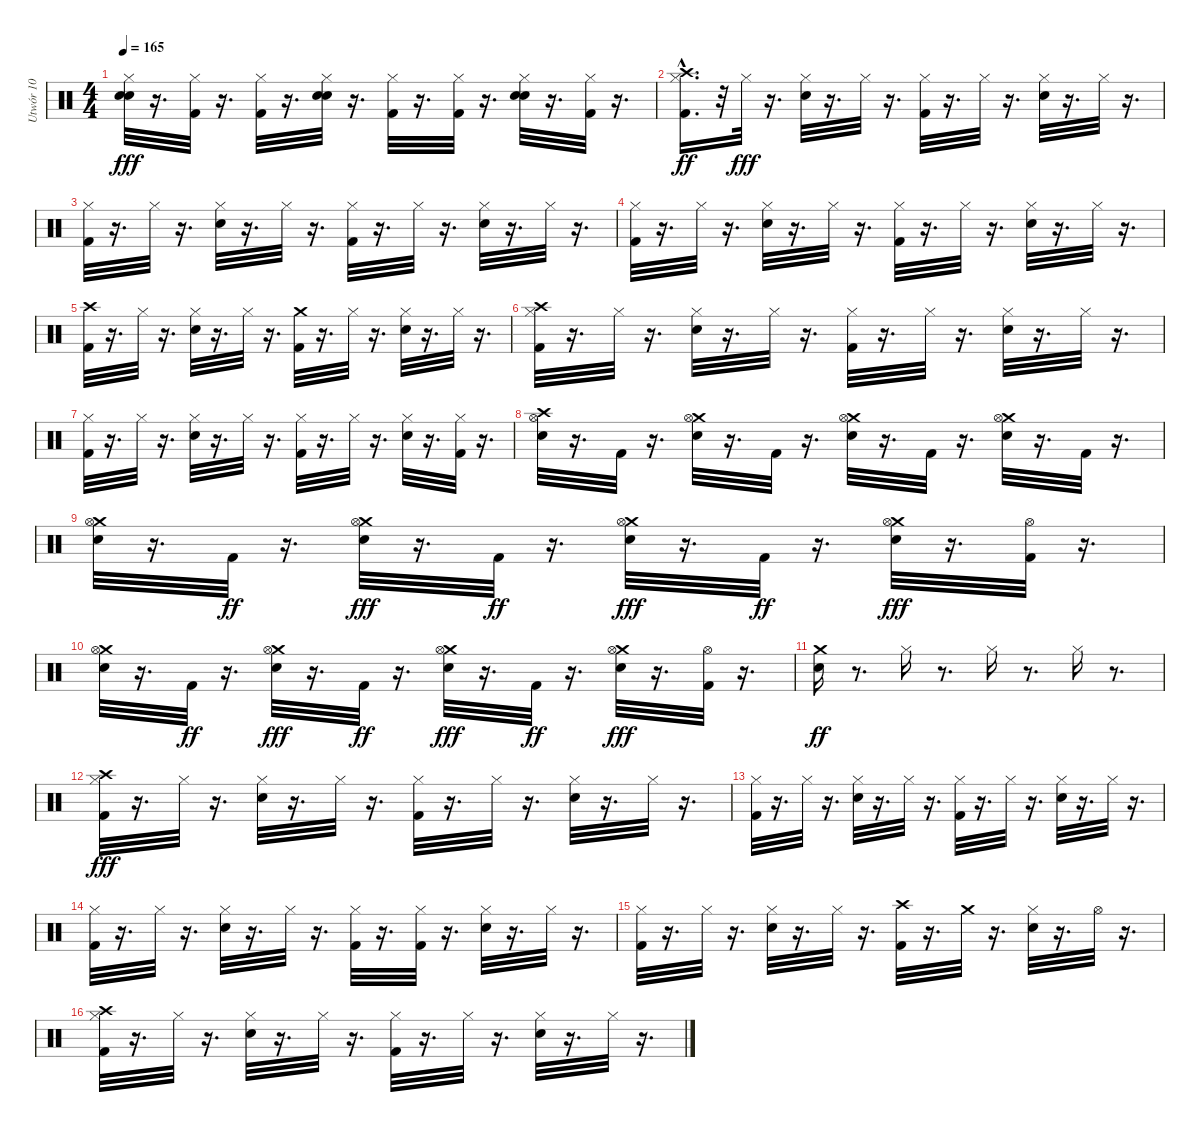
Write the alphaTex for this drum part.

\track ("Utwór 10" "Utwór 10") {instrument percussion}
\staff {score}
\articulation defaults
\ts (4 4)
\tempo 165
\clef neutral
\ks c
("Electric Snare (hit)" "Hi-Hat (closed)" "Electric Snare (hit)").32{dy fff} r.16{d} ("Kick (hit) 2" "Hi-Hat (closed)").32 r.16{d} ("Hi-Hat (closed)" "Kick (hit) 2").32 r.16{d} ("Electric Snare (hit)" "Electric Snare (hit)" "Hi-Hat (closed)").32 r.16{d} ("Hi-Hat (closed)" "Kick (hit) 2").32 r.16{d} ("Hi-Hat (closed)" "Kick (hit) 2").32 r.16{d} ("Electric Snare (hit)" "Hi-Hat (closed)" "Electric Snare (hit)").32 r.16{d} ("Kick (hit) 2" "Hi-Hat (closed)").32 r.16{d} |
("Kick (hit) 2" "Hi-Hat (closed)" "Crash high (hit)"{hac}).16{d dy ff} r.32 "Hi-Hat (closed)".32{dy fff} r.16{d} ("Hi-Hat (closed)" "Electric Snare (hit)").32 r.16{d} "Hi-Hat (closed)".32 r.16{d} ("Hi-Hat (closed)" "Kick (hit) 2").32 r.16{d} "Hi-Hat (closed)".32 r.16{d} ("Hi-Hat (closed)" "Electric Snare (hit)").32 r.16{d} "Hi-Hat (closed)".32 r.16{d} |
("Hi-Hat (closed)" "Kick (hit) 2").32 r.16{d} "Hi-Hat (closed)".32 r.16{d} ("Hi-Hat (closed)" "Electric Snare (hit)").32 r.16{d} "Hi-Hat (closed)".32 r.16{d} ("Hi-Hat (closed)" "Kick (hit) 2").32 r.16{d} "Hi-Hat (closed)".32 r.16{d} ("Hi-Hat (closed)" "Electric Snare (hit)").32 r.16{d} "Hi-Hat (closed)".32 r.16{d} |
("Hi-Hat (closed)" "Kick (hit) 2").32 r.16{d} "Hi-Hat (closed)".32 r.16{d} ("Hi-Hat (closed)" "Electric Snare (hit)").32 r.16{d} "Hi-Hat (closed)".32 r.16{d} ("Hi-Hat (closed)" "Kick (hit) 2").32 r.16{d} "Hi-Hat (closed)".32 r.16{d} ("Hi-Hat (closed)" "Electric Snare (hit)").32 r.16{d} "Hi-Hat (closed)".32 r.16{d} |
("Crash high (hit)" "Kick (hit) 2").32 r.16{d} "Hi-Hat (closed)".32 r.16{d} ("Hi-Hat (closed)" "Electric Snare (hit)").32 r.16{d} "Hi-Hat (closed)".32 r.16{d} ("Crash medium (hit)" "Kick (hit) 2").32 r.16{d} "Hi-Hat (closed)".32 r.16{d} ("Hi-Hat (closed)" "Electric Snare (hit)").32 r.16{d} "Hi-Hat (closed)".32 r.16{d} |
("Crash high (hit)" "Hi-Hat (closed)" "Kick (hit) 2").32 r.16{d} "Hi-Hat (closed)".32 r.16{d} ("Hi-Hat (closed)" "Electric Snare (hit)").32 r.16{d} "Hi-Hat (closed)".32 r.16{d} ("Hi-Hat (closed)" "Kick (hit) 2").32 r.16{d} "Hi-Hat (closed)".32 r.16{d} ("Hi-Hat (closed)" "Electric Snare (hit)").32 r.16{d} "Hi-Hat (closed)".32 r.16{d} |
("Hi-Hat (closed)" "Kick (hit) 2").32 r.16{d} "Hi-Hat (closed)".32 r.16{d} ("Hi-Hat (closed)" "Electric Snare (hit)").32 r.16{d} "Hi-Hat (closed)".32 r.16{d} ("Hi-Hat (closed)" "Kick (hit) 2").32 r.16{d} "Hi-Hat (closed)".32 r.16{d} ("Hi-Hat (closed)" "Electric Snare (hit)").32 r.16{d} ("Kick (hit) 2" "Hi-Hat (closed)").32 r.16{d} |
("Electric Snare (hit)" "Crash high (hit)" "Hi-Hat (open)").32 r.16{d} "Kick (hit) 2".32 r.16{d} ("Crash medium (hit)" "Hi-Hat (open)" "Electric Snare (hit)").32 r.16{d} "Kick (hit) 2".32 r.16{d} ("Crash medium (hit)" "Electric Snare (hit)" "Hi-Hat (open)").32 r.16{d} "Kick (hit) 2".32 r.16{d} ("Crash medium (hit)" "Hi-Hat (open)" "Electric Snare (hit)").32 r.16{d} "Kick (hit) 2".32 r.16{d} |
("Crash medium (hit)" "Electric Snare (hit)" "Hi-Hat (open)").32 r.16{d} "Kick (hit) 2".32{dy ff} r.16{d} ("Crash medium (hit)" "Hi-Hat (open)" "Electric Snare (hit)").32{dy fff} r.16{d} "Kick (hit) 2".32{dy ff} r.16{d} ("Crash medium (hit)" "Electric Snare (hit)" "Hi-Hat (open)").32{dy fff} r.16{d} "Kick (hit) 2".32{dy ff} r.16{d} ("Crash medium (hit)" "Hi-Hat (open)" "Electric Snare (hit)").32{dy fff} r.16{d} ("Kick (hit) 2" "Hi-Hat (open)").32 r.16{d} |
("Crash medium (hit)" "Electric Snare (hit)" "Hi-Hat (open)").32 r.16{d} "Kick (hit) 2".32{dy ff} r.16{d} ("Crash medium (hit)" "Hi-Hat (open)" "Electric Snare (hit)").32{dy fff} r.16{d} "Kick (hit) 2".32{dy ff} r.16{d} ("Crash medium (hit)" "Electric Snare (hit)" "Hi-Hat (open)").32{dy fff} r.16{d} "Kick (hit) 2".32{dy ff} r.16{d} ("Crash medium (hit)" "Hi-Hat (open)" "Electric Snare (hit)").32{dy fff} r.16{d} ("Kick (hit) 2" "Hi-Hat (open)").32 r.16{d} |
("Crash medium (hit)" "Snare (hit) 2").16{dy ff} r.8{d} "Hi-Hat (closed)".16 r.8{d} "Hi-Hat (closed)".16 r.8{d} "Hi-Hat (closed)".16 r.8{d} |
("Kick (hit) 2" "Hi-Hat (closed)" "Crash high (hit)").32{dy fff} r.16{d} "Hi-Hat (closed)".32 r.16{d} ("Hi-Hat (closed)" "Electric Snare (hit)").32 r.16{d} "Hi-Hat (closed)".32 r.16{d} ("Hi-Hat (closed)" "Kick (hit) 2").32 r.16{d} "Hi-Hat (closed)".32 r.16{d} ("Hi-Hat (closed)" "Electric Snare (hit)").32 r.16{d} "Hi-Hat (closed)".32 r.16{d} |
("Hi-Hat (closed)" "Kick (hit) 2").32 r.16{d} "Hi-Hat (closed)".32 r.16{d} ("Hi-Hat (closed)" "Electric Snare (hit)").32 r.16{d} "Hi-Hat (closed)".32 r.16{d} ("Hi-Hat (closed)" "Kick (hit) 2").32 r.16{d} "Hi-Hat (closed)".32 r.16{d} ("Hi-Hat (closed)" "Electric Snare (hit)").32 r.16{d} "Hi-Hat (closed)".32 r.16{d} |
("Hi-Hat (closed)" "Kick (hit) 2").32 r.16{d} "Hi-Hat (closed)".32 r.16{d} ("Hi-Hat (closed)" "Electric Snare (hit)").32 r.16{d} "Hi-Hat (closed)".32 r.16{d} ("Hi-Hat (closed)" "Kick (hit) 2").32 r.16{d} ("Hi-Hat (closed)" "Kick (hit) 2").32 r.16{d} ("Hi-Hat (closed)" "Electric Snare (hit)").32 r.16{d} "Hi-Hat (closed)".32 r.16{d} |
("Hi-Hat (closed)" "Kick (hit) 2").32 r.16{d} "Hi-Hat (closed)".32 r.16{d} ("Hi-Hat (closed)" "Electric Snare (hit)").32 r.16{d} "Hi-Hat (closed)".32 r.16{d} ("Crash high (hit)" "Kick (hit) 2").32 r.16{d} "Crash medium (hit)".32 r.16{d} ("Hi-Hat (closed)" "Electric Snare (hit)").32 r.16{d} "Hi-Hat (open)".32 r.16{d} |
("Crash high (hit)" "Hi-Hat (closed)" "Kick (hit) 2").32 r.16{d} "Hi-Hat (closed)".32 r.16{d} ("Hi-Hat (closed)" "Electric Snare (hit)").32 r.16{d} "Hi-Hat (closed)".32 r.16{d} ("Hi-Hat (closed)" "Kick (hit) 2").32 r.16{d} "Hi-Hat (closed)".32 r.16{d} ("Hi-Hat (closed)" "Electric Snare (hit)").32 r.16{d} "Hi-Hat (closed)".32 r.16{d}
